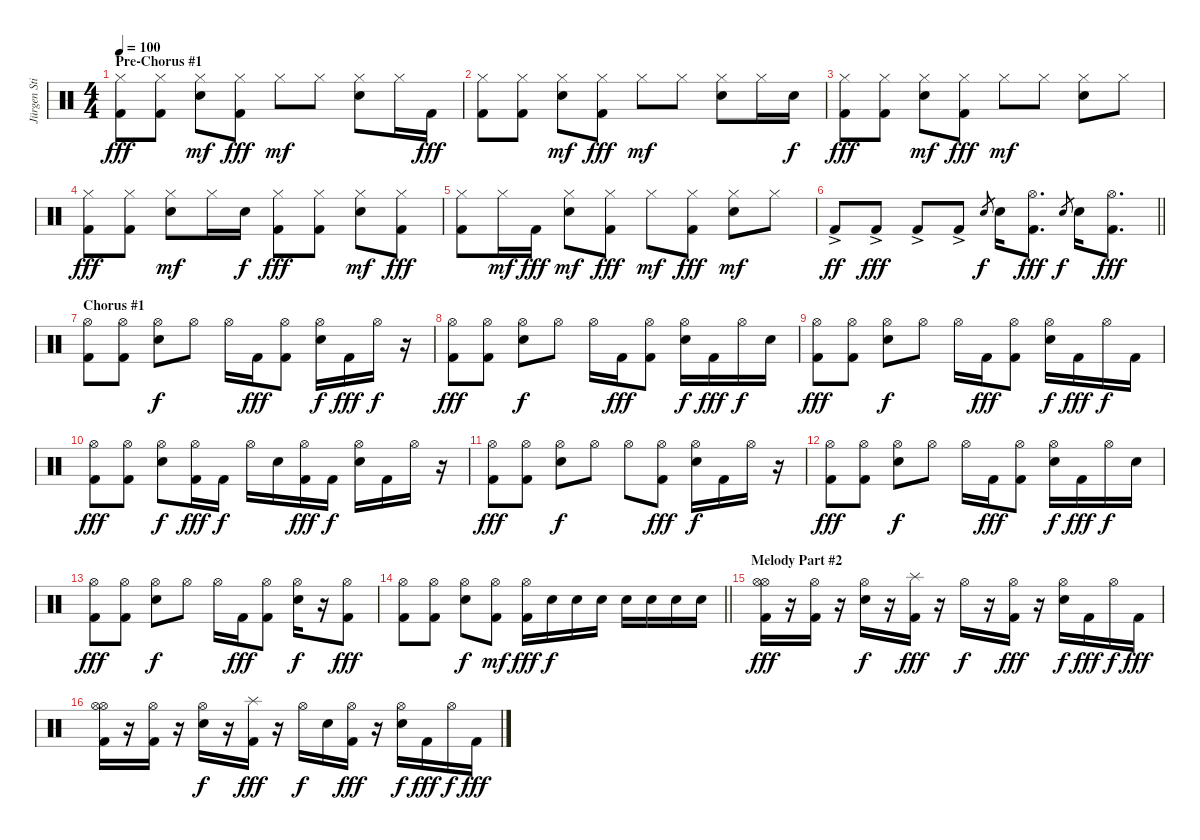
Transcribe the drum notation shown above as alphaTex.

\track ("Jürgen Stiehle" "Jürgen Sti") {instrument percussion}
\staff {score}
\articulation defaults
\ts (4 4)
\section ("" "Pre-Chorus #1")
\tempo 100
\clef neutral
\ks c
("Hi-Hat (closed)" "Kick (hit) 2").8{dy fff} ("Hi-Hat (closed)" "Kick (hit) 2").8 ("Hi-Hat (closed)" "Electric Snare (hit)").8{dy mf} ("Hi-Hat (closed)" "Kick (hit) 2").8{dy fff} "Hi-Hat (closed)".8{dy mf} "Hi-Hat (closed)".8 ("Hi-Hat (closed)" "Electric Snare (hit)").8 "Hi-Hat (closed)".16 "Kick (hit) 2".16{dy fff} |
("Hi-Hat (closed)" "Kick (hit) 2").8 ("Hi-Hat (closed)" "Kick (hit) 2").8 ("Hi-Hat (closed)" "Electric Snare (hit)").8{dy mf} ("Hi-Hat (closed)" "Kick (hit) 2").8{dy fff} "Hi-Hat (closed)".8{dy mf} "Hi-Hat (closed)".8 ("Hi-Hat (closed)" "Electric Snare (hit)").8 "Hi-Hat (closed)".16 "Electric Snare (hit)".16{dy f} |
("Hi-Hat (closed)" "Kick (hit) 2").8{dy fff} ("Hi-Hat (closed)" "Kick (hit) 2").8 ("Hi-Hat (closed)" "Electric Snare (hit)").8{dy mf} ("Hi-Hat (closed)" "Kick (hit) 2").8{dy fff} "Hi-Hat (closed)".8{dy mf} "Hi-Hat (closed)".8 ("Hi-Hat (closed)" "Electric Snare (hit)").8 "Hi-Hat (closed)".8 |
("Hi-Hat (closed)" "Kick (hit) 2").8{dy fff} ("Hi-Hat (closed)" "Kick (hit) 2").8 ("Hi-Hat (closed)" "Electric Snare (hit)").8{dy mf} "Hi-Hat (closed)".16 "Electric Snare (hit)".16{dy f} ("Hi-Hat (closed)" "Kick (hit) 2").8{dy fff} ("Hi-Hat (closed)" "Kick (hit) 2").8 ("Hi-Hat (closed)" "Electric Snare (hit)").8{dy mf} ("Hi-Hat (closed)" "Kick (hit) 2").8{dy fff} |
("Hi-Hat (closed)" "Kick (hit) 2").8 "Hi-Hat (closed)".16{dy mf} "Kick (hit) 2".16{dy fff} ("Hi-Hat (closed)" "Electric Snare (hit)").8{dy mf} ("Hi-Hat (closed)" "Kick (hit) 2").8{dy fff} "Hi-Hat (closed)".8{dy mf} ("Hi-Hat (closed)" "Kick (hit) 2").8{dy fff} ("Hi-Hat (closed)" "Electric Snare (hit)").8{dy mf} "Hi-Hat (closed)".8 |
\barLineRight lightlight "Kick (hit) 2"{ac}.8{dy ff} "Kick (hit) 2"{ac}.8{dy fff} "Kick (hit) 2"{ac}.8 "Kick (hit) 2"{ac}.8 "Electric Snare (hit)".8{gr dy f} "Electric Snare (hit)".16
("Hi-Hat (open)" "Kick (hit) 2").8{d dy fff} "Electric Snare (hit)".8{gr dy f} "Electric Snare (hit)".16 ("Hi-Hat (open)" "Kick (hit) 2").8{d dy fff} |
\section ("" "Chorus #1")
("Hi-Hat (open)" "Kick (hit) 2").8 ("Hi-Hat (open)" "Kick (hit) 2").8 ("Hi-Hat (open)" "Electric Snare (hit)").8{dy f} "Hi-Hat (open)".8 "Hi-Hat (open)".16 "Kick (hit) 2".16{dy fff} ("Hi-Hat (open)" "Kick (hit) 2").8 ("Hi-Hat (open)" "Electric Snare (hit)").16{dy f} "Kick (hit) 2".16{dy fff} "Hi-Hat (open)".16{dy f} r.16 |
("Hi-Hat (open)" "Kick (hit) 2").8{dy fff} ("Hi-Hat (open)" "Kick (hit) 2").8 ("Hi-Hat (open)" "Electric Snare (hit)").8{dy f} "Hi-Hat (open)".8 "Hi-Hat (open)".16 "Kick (hit) 2".16{dy fff} ("Hi-Hat (open)" "Kick (hit) 2").8 ("Hi-Hat (open)" "Electric Snare (hit)").16{dy f} "Kick (hit) 2".16{dy fff} "Hi-Hat (open)".16{dy f} "Electric Snare (hit)".16 |
("Hi-Hat (open)" "Kick (hit) 2").8{dy fff} ("Hi-Hat (open)" "Kick (hit) 2").8 ("Hi-Hat (open)" "Electric Snare (hit)").8{dy f} "Hi-Hat (open)".8 "Hi-Hat (open)".16 "Kick (hit) 2".16{dy fff} ("Hi-Hat (open)" "Kick (hit) 2").8 ("Hi-Hat (open)" "Electric Snare (hit)").16{dy f} "Kick (hit) 2".16{dy fff} "Hi-Hat (open)".16{dy f} "Kick (hit) 2".16 |
("Hi-Hat (open)" "Kick (hit) 2").8{dy fff} ("Hi-Hat (open)" "Kick (hit) 2").8 ("Hi-Hat (open)" "Electric Snare (hit)").8{dy f} ("Hi-Hat (open)" "Kick (hit) 2").16{dy fff} "Kick (hit) 2".16{dy f} "Hi-Hat (open)".16 "Electric Snare (hit)".16 ("Hi-Hat (open)" "Kick (hit) 2").16{dy fff} "Kick (hit) 2".16{dy f} ("Hi-Hat (open)" "Electric Snare (hit)").16 "Kick (hit) 2".16 "Hi-Hat (open)".16 r.16 |
("Hi-Hat (open)" "Kick (hit) 2").8{dy fff} ("Hi-Hat (open)" "Kick (hit) 2").8 ("Hi-Hat (open)" "Electric Snare (hit)").8{dy f} "Hi-Hat (open)".8 "Hi-Hat (open)".8 ("Hi-Hat (open)" "Kick (hit) 2").8{dy fff} ("Hi-Hat (open)" "Electric Snare (hit)").16{dy f} "Kick (hit) 2".16 "Hi-Hat (open)".16 r.16 |
("Hi-Hat (open)" "Kick (hit) 2").8{dy fff} ("Hi-Hat (open)" "Kick (hit) 2").8 ("Hi-Hat (open)" "Electric Snare (hit)").8{dy f} "Hi-Hat (open)".8 "Hi-Hat (open)".16 "Kick (hit) 2".16{dy fff} ("Hi-Hat (open)" "Kick (hit) 2").8 ("Hi-Hat (open)" "Electric Snare (hit)").16{dy f} "Kick (hit) 2".16{dy fff} "Hi-Hat (open)".16{dy f} "Electric Snare (hit)".16 |
("Hi-Hat (open)" "Kick (hit) 2").8{dy fff} ("Hi-Hat (open)" "Kick (hit) 2").8 ("Hi-Hat (open)" "Electric Snare (hit)").8{dy f} "Hi-Hat (open)".8 "Hi-Hat (open)".16 "Kick (hit) 2".16{dy fff} ("Hi-Hat (open)" "Kick (hit) 2").8 ("Hi-Hat (open)" "Electric Snare (hit)").16{dy f} r.16 ("Hi-Hat (open)" "Kick (hit) 2").8{dy fff} |
\barLineRight lightlight
("Hi-Hat (open)" "Kick (hit) 2").8 ("Hi-Hat (open)" "Kick (hit) 2").8 ("Hi-Hat (open)" "Electric Snare (hit)").8{dy f} ("Hi-Hat (open)" "Kick (hit) 2").8{dy mf} ("Hi-Hat (open)" "Kick (hit) 2").16{dy fff} "Electric Snare (hit)".16{dy f} "Electric Snare (hit)".16 "Electric Snare (hit)".16 "Electric Snare (hit)".16 "Electric Snare (hit)".16 "Electric Snare (hit)".16 "Electric Snare (hit)".16 |
\section ("" "Melody Part #2")
("Hi-Hat (open)" "Hi-Hat (open)" "Kick (hit) 2").16{dy fff} r.16 ("Hi-Hat (open)" "Kick (hit) 2").16 r.16 ("Hi-Hat (open)" "Electric Snare (hit)").16{dy f} r.16 ("Splash (hit)" "Kick (hit) 2").16{dy fff} r.16 "Hi-Hat (open)".16{dy f} r.16 ("Hi-Hat (open)" "Kick (hit) 2").16{dy fff} r.16 ("Hi-Hat (open)" "Electric Snare (hit)").16{dy f} "Kick (hit) 2".16{dy fff} "Hi-Hat (open)".16{dy f} "Kick (hit) 2".16{dy fff} |
("Hi-Hat (open)" "Hi-Hat (open)" "Kick (hit) 2").16 r.16 ("Hi-Hat (open)" "Kick (hit) 2").16 r.16 ("Hi-Hat (open)" "Electric Snare (hit)").16{dy f} r.16 ("Splash (hit)" "Kick (hit) 2").16{dy fff} r.16 "Hi-Hat (open)".16{dy f} "Electric Snare (hit)".16 ("Hi-Hat (open)" "Kick (hit) 2").16{dy fff} r.16 ("Hi-Hat (open)" "Electric Snare (hit)").16{dy f} "Kick (hit) 2".16{dy fff} "Hi-Hat (open)".16{dy f} "Kick (hit) 2".16{dy fff}
